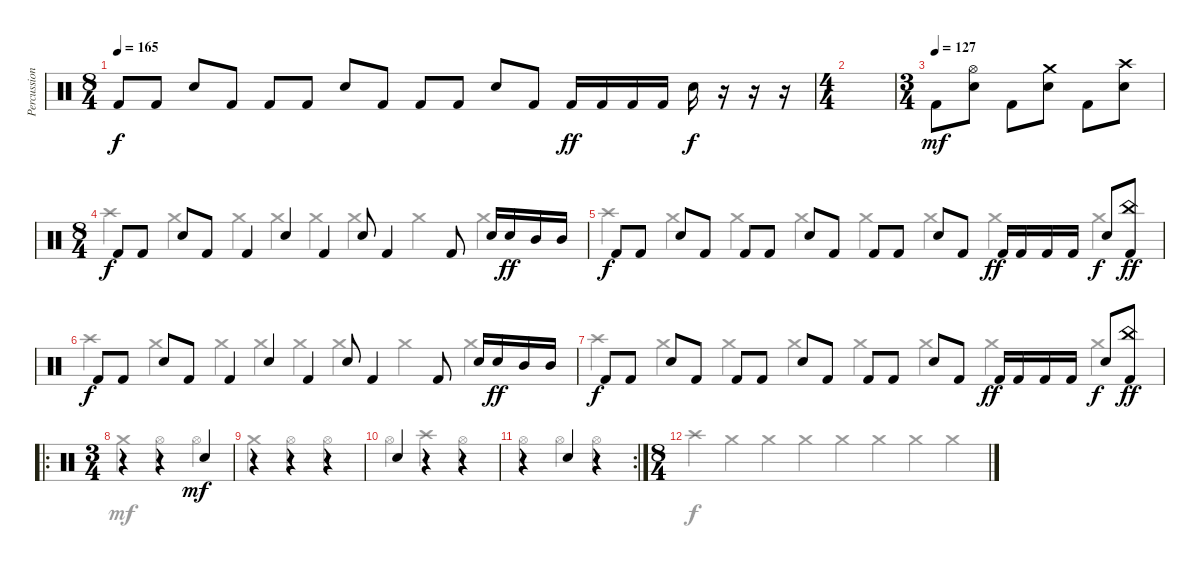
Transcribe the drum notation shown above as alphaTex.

\track ("Percussion" "Percussion") {instrument percussion}
\staff {score}
\articulation defaults
\voice
\ts (8 4)
\tempo 165
\clef neutral
\ks c "Kick (hit) 2".8{dy f} "Kick (hit) 2".8 "Electric Snare (hit)".8 "Kick (hit) 2".8 "Kick (hit) 2".8 "Kick (hit) 2".8 "Electric Snare (hit)".8 "Kick (hit) 2".8 "Kick (hit) 2".8 "Kick (hit) 2".8 "Electric Snare (hit)".8 "Kick (hit) 2".8 "Kick (hit) 2".16{dy ff} "Kick (hit) 2".16 "Kick (hit) 2".16 "Kick (hit) 2".16 "Electric Snare (hit)".16{dy f}
r.16 r.16 r.16 |
\ts (4 4)
|
\ts (3 4)
\tempo (127)
"Kick (hit) 2".8{dy mf} ("Hi-Hat (open)" "Electric Snare (hit)").8 "Kick (hit) 2".8 ("Crash medium (hit)" "Electric Snare (hit)").8 "Kick (hit) 2".8 ("Crash high (hit)" "Electric Snare (hit)").8 |
\ts (8 4)
"Kick (hit) 2".8{dy f} "Kick (hit) 2".8 "Electric Snare (hit)".8 "Kick (hit) 2".8 "Kick (hit) 2".4 "Electric Snare (hit)".4 "Kick (hit) 2".4 "Electric Snare (hit)".8 "Kick (hit) 2".4 "Kick (hit) 2".8 "Electric Snare (hit)".16 "Electric Snare (hit)".16{dy ff} "Mid Tom (hit)".16 "Mid Tom (hit)".16 |
"Kick (hit) 2".8{dy f} "Kick (hit) 2".8 "Electric Snare (hit)".8 "Kick (hit) 2".8 "Kick (hit) 2".8 "Kick (hit) 2".8 "Electric Snare (hit)".8 "Kick (hit) 2".8 "Kick (hit) 2".8 "Kick (hit) 2".8 "Electric Snare (hit)".8 "Kick (hit) 2".8 "Kick (hit) 2".16{dy ff} "Kick (hit) 2".16 "Kick (hit) 2".16 "Kick (hit) 2".16 "Electric Snare (hit)".8{dy f} ("China (hit)" "Kick (hit) 2").8{dy ff} |
"Kick (hit) 2".8{dy f} "Kick (hit) 2".8 "Electric Snare (hit)".8 "Kick (hit) 2".8 "Kick (hit) 2".4 "Electric Snare (hit)".4 "Kick (hit) 2".4 "Electric Snare (hit)".8 "Kick (hit) 2".4 "Kick (hit) 2".8 "Electric Snare (hit)".16 "Electric Snare (hit)".16{dy ff} "Mid Tom (hit)".16 "Mid Tom (hit)".16 |
"Kick (hit) 2".8{dy f} "Kick (hit) 2".8 "Electric Snare (hit)".8 "Kick (hit) 2".8 "Kick (hit) 2".8 "Kick (hit) 2".8 "Electric Snare (hit)".8 "Kick (hit) 2".8 "Kick (hit) 2".8 "Kick (hit) 2".8 "Electric Snare (hit)".8 "Kick (hit) 2".8 "Kick (hit) 2".16{dy ff} "Kick (hit) 2".16 "Kick (hit) 2".16 "Kick (hit) 2".16 "Electric Snare (hit)".8{dy f} ("China (hit)" "Kick (hit) 2").8{dy ff} |
\ro
\ts (3 4)
r.4 r.4 "Electric Snare (hit)".4{dy mf} |
r.4 r.4 r.4 |
"Electric Snare (hit)".4 r.4 r.4 |
\rc 2
r.4 "Electric Snare (hit)".4 r.4 |
\ts (8 4)
\voice
\clef neutral
\ottava regular
\simile none
\ks c "Crash high (hit)".4{dy f} "Crash medium (hit)".4 "Crash medium (hit)".4 "Crash medium (hit)".4 "Crash medium (hit)".4 "Crash medium (hit)".4 "Crash medium (hit)".4 "Crash medium (hit)".4
|
|
|
"Crash high (hit)".4 "Crash medium (hit)".4 "Crash medium (hit)".4 "Crash medium (hit)".4 "Crash medium (hit)".4 "Crash medium (hit)".4 "Crash medium (hit)".4 "Crash medium (hit)".4 |
"Crash high (hit)".4 "Crash medium (hit)".4 "Crash medium (hit)".4 "Crash medium (hit)".4 "Crash medium (hit)".4 "Crash medium (hit)".4 "Crash medium (hit)".4 "Crash medium (hit)".4 |
"Crash high (hit)".4 "Crash medium (hit)".4 "Crash medium (hit)".4 "Crash medium (hit)".4 "Crash medium (hit)".4 "Crash medium (hit)".4 "Crash medium (hit)".4 "Crash medium (hit)".4 |
"Crash high (hit)".4 "Crash medium (hit)".4 "Crash medium (hit)".4 "Crash medium (hit)".4 "Crash medium (hit)".4 "Crash medium (hit)".4 "Crash medium (hit)".4 "Crash medium (hit)".4 |
"Crash medium (hit)".4{dy mf} "Hi-Hat (open)".4 "Hi-Hat (open)".4 |
"Crash medium (hit)".4 "Hi-Hat (open)".4 "Hi-Hat (open)".4 |
"Hi-Hat (open)".4 "Crash high (hit)".4 "Hi-Hat (open)".4 |
"Hi-Hat (open)".4 "Hi-Hat (open)".4 "Hi-Hat (open)".4 |
